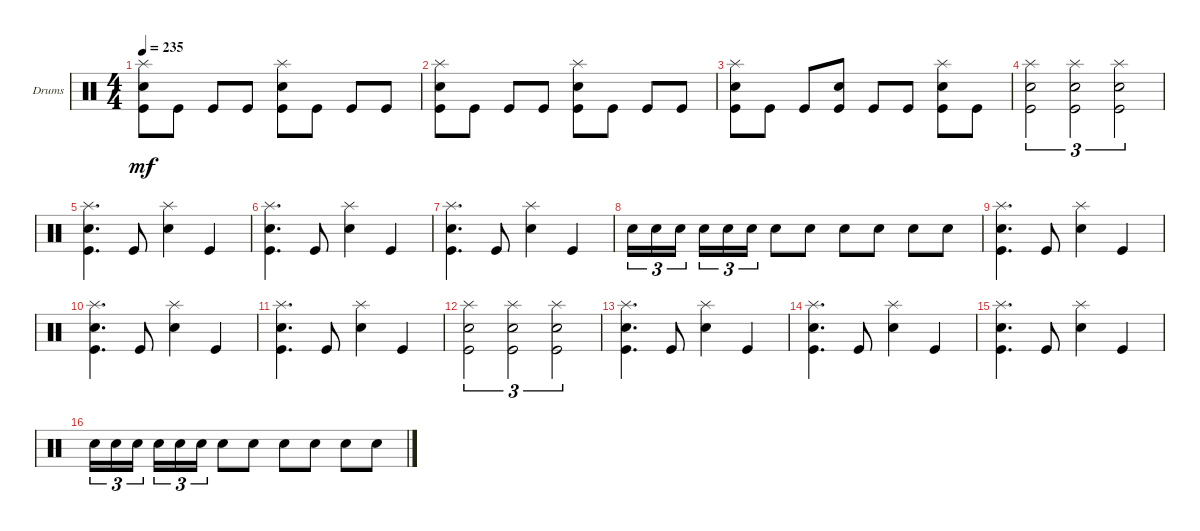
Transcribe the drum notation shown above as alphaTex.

\defaultSystemsLayout 4
\bracketExtendMode groupsimilarinstruments
\firstSystemTrackNameOrientation horizontal
\otherSystemsTrackNameOrientation horizontal
\track ("Drumkit" "Drums") {instrument percussion}
\staff {score}
\articulation defaults
\ts (4 4)
\tempo 235
\clef neutral
\ks c
("Splash (hit)" "Snare (hit) 2" "Kick (hit)").8{dy mf} "Kick (hit)".8 "Kick (hit)".8 "Kick (hit)".8 ("Kick (hit)" "Snare (hit) 2" "Splash (hit)").8 "Kick (hit)".8 "Kick (hit)".8 "Kick (hit)".8 |
("Splash (hit)" "Snare (hit) 2" "Kick (hit)").8 "Kick (hit)".8 "Kick (hit)".8 "Kick (hit)".8 ("Kick (hit)" "Snare (hit) 2" "Splash (hit)").8 "Kick (hit)".8 "Kick (hit)".8 "Kick (hit)".8 |
("Splash (hit)" "Snare (hit) 2" "Kick (hit)").8 "Kick (hit)".8 "Kick (hit)".8 ("Kick (hit)" "Snare (hit) 2").8 "Kick (hit)".8 "Kick (hit)".8 ("Kick (hit)" "Snare (hit) 2" "Splash (hit)").8 "Kick (hit)".8 |
("Kick (hit)" "Snare (hit) 2" "Splash (hit)").2{tu (3 2)} ("Kick (hit)" "Snare (hit) 2" "Splash (hit)").2{tu (3 2)} ("Kick (hit)" "Snare (hit) 2" "Splash (hit)").2{tu (3 2)} |
("Kick (hit)" "Snare (hit) 2" "Splash (hit)").4{d} "Kick (hit)".8 ("Snare (hit) 2" "Splash (hit)").4 "Kick (hit)".4 |
("Kick (hit)" "Snare (hit) 2" "Splash (hit)").4{d} "Kick (hit)".8 ("Snare (hit) 2" "Splash (hit)").4 "Kick (hit)".4 |
("Kick (hit)" "Snare (hit) 2" "Splash (hit)").4{d} "Kick (hit)".8 ("Snare (hit) 2" "Splash (hit)").4 "Kick (hit)".4 |
"Snare (hit) 2".16{tu (3 2)} "Snare (hit) 2".16{tu (3 2)} "Snare (hit) 2".16{tu (3 2)} "Snare (hit) 2".16{tu (3 2)} "Snare (hit) 2".16{tu (3 2)} "Snare (hit) 2".16{tu (3 2)} "Snare (hit) 2".8 "Snare (hit) 2".8 "Snare (hit) 2".8 "Snare (hit) 2".8 "Snare (hit) 2".8 "Snare (hit) 2".8 |
("Kick (hit)" "Snare (hit) 2" "Splash (hit)").4{d} "Kick (hit)".8 ("Snare (hit) 2" "Splash (hit)").4 "Kick (hit)".4 |
("Kick (hit)" "Snare (hit) 2" "Splash (hit)").4{d} "Kick (hit)".8 ("Snare (hit) 2" "Splash (hit)").4 "Kick (hit)".4 |
("Kick (hit)" "Snare (hit) 2" "Splash (hit)").4{d} "Kick (hit)".8 ("Snare (hit) 2" "Splash (hit)").4 "Kick (hit)".4 |
("Kick (hit)" "Snare (hit) 2" "Splash (hit)").2{tu (3 2)} ("Kick (hit)" "Snare (hit) 2" "Splash (hit)").2{tu (3 2)} ("Kick (hit)" "Snare (hit) 2" "Splash (hit)").2{tu (3 2)} |
("Kick (hit)" "Snare (hit) 2" "Splash (hit)").4{d} "Kick (hit)".8 ("Snare (hit) 2" "Splash (hit)").4 "Kick (hit)".4 |
("Kick (hit)" "Snare (hit) 2" "Splash (hit)").4{d} "Kick (hit)".8 ("Snare (hit) 2" "Splash (hit)").4 "Kick (hit)".4 |
("Kick (hit)" "Snare (hit) 2" "Splash (hit)").4{d} "Kick (hit)".8 ("Snare (hit) 2" "Splash (hit)").4 "Kick (hit)".4 |
"Snare (hit) 2".16{tu (3 2)} "Snare (hit) 2".16{tu (3 2)} "Snare (hit) 2".16{tu (3 2)} "Snare (hit) 2".16{tu (3 2)} "Snare (hit) 2".16{tu (3 2)} "Snare (hit) 2".16{tu (3 2)} "Snare (hit) 2".8 "Snare (hit) 2".8 "Snare (hit) 2".8 "Snare (hit) 2".8 "Snare (hit) 2".8 "Snare (hit) 2".8
